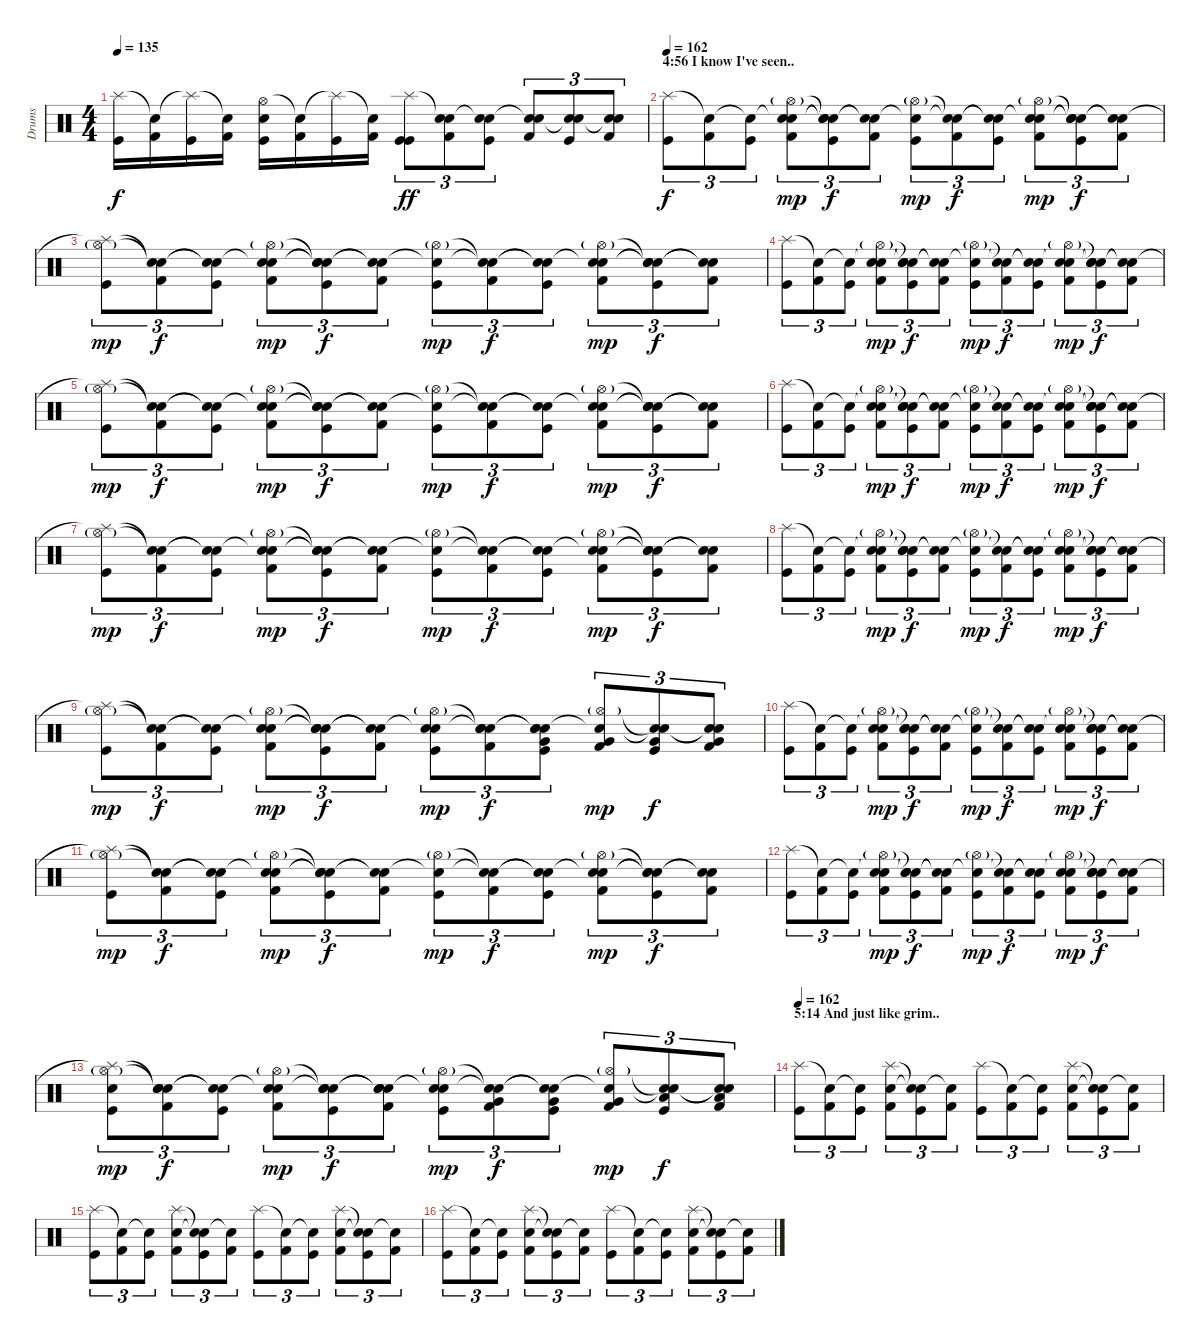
\track ("Drums" "Drums") {instrument percussion}
\staff {score}
\articulation defaults
\ts (4 4)
\tempo 135
\clef neutral
\ks c
("Splash (hit)" "Kick (hit)").16{dy f} ("Snare (hit)"{t} "Kick (hit) 2").16 ("Splash (hit)"{t} "Kick (hit)").16 ("Snare (hit)"{t} "Kick (hit) 2").16 ("Hi-Hat (open)" "Snare (hit) 2" "Kick (hit)").16 ("Snare (hit)"{t} "Kick (hit) 2").16 ("Splash (hit)"{t} "Kick (hit)").16 ("Snare (hit)"{t} "Kick (hit) 2").16 ("Splash (hit)" "Kick (hit)" "Kick (hit)").8{tu (3 2) dy ff} ("Snare (hit)"{t} "Snare (hit) 2" "Kick (hit) 2").8{tu (3 2)} ("Snare (hit)"{t} "Snare (hit) 2" "Kick (hit)").8{tu (3 2)} ("Snare (hit)"{t} "Snare (hit) 2" "Kick (hit) 2").8{tu (3 2)} ("Snare (hit)"{t} "Snare (hit) 2" "Kick (hit)").8{tu (3 2)} ("Snare (hit)"{t} "Snare (hit) 2" "Kick (hit) 2").8{tu (3 2)} |
\section ("" "4:56 I know I've seen..")
\tempo 162
("Splash (hit)" "Kick (hit)").8{tu (3 2) dy f} ("Snare (hit)"{t} "Kick (hit) 2").8{tu (3 2)} ("Snare (hit)"{t} "Kick (hit)").8{tu (3 2)} ("Snare (hit)"{t} "Hi-Hat (open)"{g} "Snare (hit) 2" "Kick (hit) 2").8{tu (3 2) dy mp} ("Snare (hit)"{t} "Snare (hit)"{t} "Snare (hit)"{t} "Kick (hit)").8{tu (3 2) dy f} ("Snare (hit)"{t} "Snare (hit)"{t} "Kick (hit) 2").8{tu (3 2)} ("Snare (hit)"{t} "Hi-Hat (open)"{g} "Kick (hit)").8{tu (3 2) dy mp} ("Snare (hit)"{t} "Snare (hit)"{t} "Kick (hit) 2").8{tu (3 2) dy f} ("Snare (hit)"{t} "Snare (hit)"{t} "Kick (hit)").8{tu (3 2)} ("Snare (hit)"{t} "Hi-Hat (open)"{g} "Snare (hit) 2" "Kick (hit) 2").8{tu (3 2) dy mp} ("Snare (hit)"{t} "Snare (hit)"{t} "Snare (hit)"{t} "Kick (hit)").8{tu (3 2) dy f} ("Snare (hit)"{t} "Snare (hit)"{t} "Kick (hit) 2").8{tu (3 2)} |
("Splash (hit)"{t} "Hi-Hat (open)"{g} "Kick (hit)").8{tu (3 2) dy mp} ("Snare (hit)"{t} "Snare (hit)"{t} "Kick (hit) 2").8{tu (3 2) dy f} ("Snare (hit)"{t} "Snare (hit)"{t} "Kick (hit)").8{tu (3 2)} ("Snare (hit)"{t} "Hi-Hat (open)"{g} "Snare (hit) 2" "Kick (hit) 2").8{tu (3 2) dy mp} ("Snare (hit)"{t} "Snare (hit)"{t} "Snare (hit)"{t} "Kick (hit)").8{tu (3 2) dy f} ("Snare (hit)"{t} "Snare (hit)"{t} "Kick (hit) 2").8{tu (3 2)} ("Snare (hit)"{t} "Hi-Hat (open)"{g} "Kick (hit)").8{tu (3 2) dy mp} ("Snare (hit)"{t} "Snare (hit)"{t} "Kick (hit) 2").8{tu (3 2) dy f} ("Snare (hit)"{t} "Snare (hit)"{t} "Kick (hit)").8{tu (3 2)} ("Snare (hit)"{t} "Hi-Hat (open)"{g} "Snare (hit) 2" "Kick (hit) 2").8{tu (3 2) dy mp} ("Snare (hit)"{t} "Snare (hit)"{t} "Snare (hit)"{t} "Kick (hit)").8{tu (3 2) dy f} ("Snare (hit)"{t} "Snare (hit)"{t} "Kick (hit) 2").8{tu (3 2)} |
("Splash (hit)" "Kick (hit)").8{tu (3 2)} ("Snare (hit)"{t} "Kick (hit) 2").8{tu (3 2)} ("Snare (hit)"{t} "Kick (hit)").8{tu (3 2)} ("Snare (hit)"{t} "Hi-Hat (open)"{g} "Snare (hit) 2" "Kick (hit) 2").8{tu (3 2) dy mp} ("Snare (hit)"{t} "Snare (hit)"{t} "Snare (hit)"{t} "Kick (hit)").8{tu (3 2) dy f} ("Snare (hit)"{t} "Snare (hit)"{t} "Kick (hit) 2").8{tu (3 2)} ("Snare (hit)"{t} "Hi-Hat (open)"{g} "Kick (hit)").8{tu (3 2) dy mp} ("Snare (hit)"{t} "Snare (hit)"{t} "Kick (hit) 2").8{tu (3 2) dy f} ("Snare (hit)"{t} "Snare (hit)"{t} "Kick (hit)").8{tu (3 2)} ("Snare (hit)"{t} "Hi-Hat (open)"{g} "Snare (hit) 2" "Kick (hit) 2").8{tu (3 2) dy mp} ("Snare (hit)"{t} "Snare (hit)"{t} "Snare (hit)"{t} "Kick (hit)").8{tu (3 2) dy f} ("Snare (hit)"{t} "Snare (hit)"{t} "Kick (hit) 2").8{tu (3 2)} |
("Splash (hit)"{t} "Hi-Hat (open)"{g} "Kick (hit)").8{tu (3 2) dy mp} ("Snare (hit)"{t} "Snare (hit)"{t} "Kick (hit) 2").8{tu (3 2) dy f} ("Snare (hit)"{t} "Snare (hit)"{t} "Kick (hit)").8{tu (3 2)} ("Snare (hit)"{t} "Hi-Hat (open)"{g} "Snare (hit) 2" "Kick (hit) 2").8{tu (3 2) dy mp} ("Snare (hit)"{t} "Snare (hit)"{t} "Snare (hit)"{t} "Kick (hit)").8{tu (3 2) dy f} ("Snare (hit)"{t} "Snare (hit)"{t} "Kick (hit) 2").8{tu (3 2)} ("Snare (hit)"{t} "Hi-Hat (open)"{g} "Kick (hit)").8{tu (3 2) dy mp} ("Snare (hit)"{t} "Snare (hit)"{t} "Kick (hit) 2").8{tu (3 2) dy f} ("Snare (hit)"{t} "Snare (hit)"{t} "Kick (hit)").8{tu (3 2)} ("Snare (hit)"{t} "Hi-Hat (open)"{g} "Snare (hit) 2" "Kick (hit) 2").8{tu (3 2) dy mp} ("Snare (hit)"{t} "Snare (hit)"{t} "Snare (hit)"{t} "Kick (hit)").8{tu (3 2) dy f} ("Snare (hit)"{t} "Snare (hit)"{t} "Kick (hit) 2").8{tu (3 2)} |
("Splash (hit)" "Kick (hit)").8{tu (3 2)} ("Snare (hit)"{t} "Kick (hit) 2").8{tu (3 2)} ("Snare (hit)"{t} "Kick (hit)").8{tu (3 2)} ("Snare (hit)"{t} "Hi-Hat (open)"{g} "Snare (hit) 2" "Kick (hit) 2").8{tu (3 2) dy mp} ("Snare (hit)"{t} "Snare (hit)"{t} "Snare (hit)"{t} "Kick (hit)").8{tu (3 2) dy f} ("Snare (hit)"{t} "Snare (hit)"{t} "Kick (hit) 2").8{tu (3 2)} ("Snare (hit)"{t} "Hi-Hat (open)"{g} "Kick (hit)").8{tu (3 2) dy mp} ("Snare (hit)"{t} "Snare (hit)"{t} "Kick (hit) 2").8{tu (3 2) dy f} ("Snare (hit)"{t} "Snare (hit)"{t} "Kick (hit)").8{tu (3 2)} ("Snare (hit)"{t} "Hi-Hat (open)"{g} "Snare (hit) 2" "Kick (hit) 2").8{tu (3 2) dy mp} ("Snare (hit)"{t} "Snare (hit)"{t} "Snare (hit)"{t} "Kick (hit)").8{tu (3 2) dy f} ("Snare (hit)"{t} "Snare (hit)"{t} "Kick (hit) 2").8{tu (3 2)} |
("Splash (hit)"{t} "Hi-Hat (open)"{g} "Kick (hit)").8{tu (3 2) dy mp} ("Snare (hit)"{t} "Snare (hit)"{t} "Kick (hit) 2").8{tu (3 2) dy f} ("Snare (hit)"{t} "Snare (hit)"{t} "Kick (hit)").8{tu (3 2)} ("Snare (hit)"{t} "Hi-Hat (open)"{g} "Snare (hit) 2" "Kick (hit) 2").8{tu (3 2) dy mp} ("Snare (hit)"{t} "Snare (hit)"{t} "Snare (hit)"{t} "Kick (hit)").8{tu (3 2) dy f} ("Snare (hit)"{t} "Snare (hit)"{t} "Kick (hit) 2").8{tu (3 2)} ("Snare (hit)"{t} "Hi-Hat (open)"{g} "Kick (hit)").8{tu (3 2) dy mp} ("Snare (hit)"{t} "Snare (hit)"{t} "Kick (hit) 2").8{tu (3 2) dy f} ("Snare (hit)"{t} "Snare (hit)"{t} "Kick (hit)").8{tu (3 2)} ("Snare (hit)"{t} "Hi-Hat (open)"{g} "Snare (hit) 2" "Kick (hit) 2").8{tu (3 2) dy mp} ("Snare (hit)"{t} "Snare (hit)"{t} "Snare (hit)"{t} "Kick (hit)").8{tu (3 2) dy f} ("Snare (hit)"{t} "Snare (hit)"{t} "Kick (hit) 2").8{tu (3 2)} |
("Splash (hit)" "Kick (hit)").8{tu (3 2)} ("Snare (hit)"{t} "Kick (hit) 2").8{tu (3 2)} ("Snare (hit)"{t} "Kick (hit)").8{tu (3 2)} ("Snare (hit)"{t} "Hi-Hat (open)"{g} "Snare (hit) 2" "Kick (hit) 2").8{tu (3 2) dy mp} ("Snare (hit)"{t} "Snare (hit)"{t} "Snare (hit)"{t} "Kick (hit)").8{tu (3 2) dy f} ("Snare (hit)"{t} "Snare (hit)"{t} "Kick (hit) 2").8{tu (3 2)} ("Snare (hit)"{t} "Hi-Hat (open)"{g} "Kick (hit)").8{tu (3 2) dy mp} ("Snare (hit)"{t} "Snare (hit)"{t} "Kick (hit) 2").8{tu (3 2) dy f} ("Snare (hit)"{t} "Snare (hit)"{t} "Kick (hit)").8{tu (3 2)} ("Snare (hit)"{t} "Hi-Hat (open)"{g} "Snare (hit) 2" "Kick (hit) 2").8{tu (3 2) dy mp} ("Snare (hit)"{t} "Snare (hit)"{t} "Snare (hit)"{t} "Kick (hit)").8{tu (3 2) dy f} ("Snare (hit)"{t} "Snare (hit)"{t} "Kick (hit) 2").8{tu (3 2)} |
("Splash (hit)"{t} "Hi-Hat (open)"{g} "Kick (hit)").8{tu (3 2) dy mp} ("Snare (hit)"{t} "Snare (hit)"{t} "Kick (hit) 2").8{tu (3 2) dy f} ("Snare (hit)"{t} "Snare (hit)"{t} "Kick (hit)").8{tu (3 2)} ("Snare (hit)"{t} "Hi-Hat (open)"{g} "Snare (hit) 2" "Kick (hit) 2").8{tu (3 2) dy mp} ("Snare (hit)"{t} "Snare (hit)"{t} "Snare (hit)"{t} "Kick (hit)").8{tu (3 2) dy f} ("Snare (hit)"{t} "Snare (hit)"{t} "Kick (hit) 2").8{tu (3 2)} ("Snare (hit)"{t} "Hi-Hat (open)"{g} "Snare (hit) 2" "Kick (hit)").8{tu (3 2) dy mp} ("Snare (hit)"{t} "Snare (hit)"{t} "Snare (hit) 2" "Kick (hit) 2").8{tu (3 2) dy f} ("Snare (hit)"{t} "Snare (hit)"{t} "Snare (hit) 2" "Very Low Tom (hit)" "Kick (hit)").8{tu (3 2)} ("Snare (hit)"{t} "Hi-Hat (open)"{g} "Very Low Tom (hit)" "Kick (hit) 2").8{tu (3 2) dy mp} ("Snare (hit)"{t} "Snare (hit)"{t} "Very Low Tom (hit)" "Kick (hit)").8{tu (3 2) dy f} ("Snare (hit)"{t} "Snare (hit)"{t} "Very Low Tom (hit)" "Kick (hit) 2").8{tu (3 2)} |
("Splash (hit)" "Kick (hit)").8{tu (3 2)} ("Snare (hit)"{t} "Kick (hit) 2").8{tu (3 2)} ("Snare (hit)"{t} "Kick (hit)").8{tu (3 2)} ("Snare (hit)"{t} "Hi-Hat (open)"{g} "Snare (hit) 2" "Kick (hit) 2").8{tu (3 2) dy mp} ("Snare (hit)"{t} "Snare (hit)"{t} "Snare (hit)"{t} "Kick (hit)").8{tu (3 2) dy f} ("Snare (hit)"{t} "Snare (hit)"{t} "Kick (hit) 2").8{tu (3 2)} ("Snare (hit)"{t} "Hi-Hat (open)"{g} "Kick (hit)").8{tu (3 2) dy mp} ("Snare (hit)"{t} "Snare (hit)"{t} "Kick (hit) 2").8{tu (3 2) dy f} ("Snare (hit)"{t} "Snare (hit)"{t} "Kick (hit)").8{tu (3 2)} ("Snare (hit)"{t} "Hi-Hat (open)"{g} "Snare (hit) 2" "Kick (hit) 2").8{tu (3 2) dy mp} ("Snare (hit)"{t} "Snare (hit)"{t} "Snare (hit)"{t} "Kick (hit)").8{tu (3 2) dy f} ("Snare (hit)"{t} "Snare (hit)"{t} "Kick (hit) 2").8{tu (3 2)} |
("Splash (hit)"{t} "Hi-Hat (open)"{g} "Kick (hit)").8{tu (3 2) dy mp} ("Snare (hit)"{t} "Snare (hit)"{t} "Kick (hit) 2").8{tu (3 2) dy f} ("Snare (hit)"{t} "Snare (hit)"{t} "Kick (hit)").8{tu (3 2)} ("Snare (hit)"{t} "Hi-Hat (open)"{g} "Snare (hit) 2" "Kick (hit) 2").8{tu (3 2) dy mp} ("Snare (hit)"{t} "Snare (hit)"{t} "Snare (hit)"{t} "Kick (hit)").8{tu (3 2) dy f} ("Snare (hit)"{t} "Snare (hit)"{t} "Kick (hit) 2").8{tu (3 2)} ("Snare (hit)"{t} "Hi-Hat (open)"{g} "Kick (hit)").8{tu (3 2) dy mp} ("Snare (hit)"{t} "Snare (hit)"{t} "Kick (hit) 2").8{tu (3 2) dy f} ("Snare (hit)"{t} "Snare (hit)"{t} "Kick (hit)").8{tu (3 2)} ("Snare (hit)"{t} "Hi-Hat (open)"{g} "Snare (hit) 2" "Kick (hit) 2").8{tu (3 2) dy mp} ("Snare (hit)"{t} "Snare (hit)"{t} "Snare (hit)"{t} "Kick (hit)").8{tu (3 2) dy f} ("Snare (hit)"{t} "Snare (hit)"{t} "Kick (hit) 2").8{tu (3 2)} |
("Splash (hit)" "Kick (hit)").8{tu (3 2)} ("Snare (hit)"{t} "Kick (hit) 2").8{tu (3 2)} ("Snare (hit)"{t} "Kick (hit)").8{tu (3 2)} ("Snare (hit)"{t} "Hi-Hat (open)"{g} "Snare (hit) 2" "Kick (hit) 2").8{tu (3 2) dy mp} ("Snare (hit)"{t} "Snare (hit)"{t} "Snare (hit)"{t} "Kick (hit)").8{tu (3 2) dy f} ("Snare (hit)"{t} "Snare (hit)"{t} "Kick (hit) 2").8{tu (3 2)} ("Snare (hit)"{t} "Hi-Hat (open)"{g} "Kick (hit)").8{tu (3 2) dy mp} ("Snare (hit)"{t} "Snare (hit)"{t} "Kick (hit) 2").8{tu (3 2) dy f} ("Snare (hit)"{t} "Snare (hit)"{t} "Kick (hit)").8{tu (3 2)} ("Snare (hit)"{t} "Hi-Hat (open)"{g} "Snare (hit) 2" "Kick (hit) 2").8{tu (3 2) dy mp} ("Snare (hit)"{t} "Snare (hit)"{t} "Snare (hit)"{t} "Kick (hit)").8{tu (3 2) dy f} ("Snare (hit)"{t} "Snare (hit)"{t} "Kick (hit) 2").8{tu (3 2)} |
("Splash (hit)"{t} "Hi-Hat (open)"{g} "Snare (hit) 2" "Kick (hit)").8{tu (3 2) dy mp} ("Snare (hit)"{t} "Snare (hit)"{t} "Snare (hit) 2" "Kick (hit) 2").8{tu (3 2) dy f} ("Snare (hit)"{t} "Snare (hit)"{t} "Kick (hit)").8{tu (3 2)} ("Snare (hit)"{t} "Hi-Hat (open)"{g} "Snare (hit) 2" "Kick (hit) 2").8{tu (3 2) dy mp} ("Snare (hit)"{t} "Snare (hit)"{t} "Snare (hit) 2" "Kick (hit)").8{tu (3 2) dy f} ("Snare (hit)"{t} "Snare (hit)"{t} "Snare (hit) 2" "Kick (hit) 2").8{tu (3 2)} ("Snare (hit)"{t} "Hi-Hat (open)"{g} "Snare (hit) 2" "Kick (hit)").8{tu (3 2) dy mp} ("Snare (hit)"{t} "Snare (hit)"{t} "Very Low Tom (hit)" "Kick (hit) 2").8{tu (3 2) dy f} ("Snare (hit)"{t} "Snare (hit)"{t} "Very Low Tom (hit)" "Kick (hit)").8{tu (3 2)} ("Snare (hit)"{t} "Hi-Hat (open)"{g} "Very Low Tom (hit)" "Kick (hit) 2").8{tu (3 2) dy mp} ("Snare (hit)"{t} "Snare (hit)"{t} "Low Floor Tom (hit)" "Kick (hit)").8{tu (3 2) dy f} ("Snare (hit)"{t} "Snare (hit)"{t} "Low Floor Tom (hit)" "Kick (hit) 2").8{tu (3 2)} |
\section ("" "5:14 And just like grim..")
\tempo 162
("Splash (hit)" "Kick (hit)").8{tu (3 2)} ("Snare (hit)"{t} "Kick (hit) 2").8{tu (3 2)} ("Snare (hit)"{t} "Kick (hit)").8{tu (3 2)} ("Splash (hit)" "Snare (hit) 2" "Kick (hit) 2").8{tu (3 2)} ("Snare (hit)"{t} "Snare (hit)"{t} "Kick (hit)").8{tu (3 2)} ("Snare (hit)"{t} "Kick (hit) 2").8{tu (3 2)} ("Splash (hit)" "Kick (hit)").8{tu (3 2)} ("Snare (hit)"{t} "Kick (hit) 2").8{tu (3 2)} ("Snare (hit)"{t} "Kick (hit)").8{tu (3 2)} ("Splash (hit)" "Snare (hit) 2" "Kick (hit) 2").8{tu (3 2)} ("Snare (hit)"{t} "Snare (hit)"{t} "Kick (hit)").8{tu (3 2)} ("Snare (hit)"{t} "Kick (hit) 2").8{tu (3 2)} |
("Splash (hit)" "Kick (hit)").8{tu (3 2)} ("Snare (hit)"{t} "Kick (hit) 2").8{tu (3 2)} ("Snare (hit)"{t} "Kick (hit)").8{tu (3 2)} ("Splash (hit)" "Snare (hit) 2" "Kick (hit) 2").8{tu (3 2)} ("Snare (hit)"{t} "Snare (hit)"{t} "Kick (hit)").8{tu (3 2)} ("Snare (hit)"{t} "Kick (hit) 2").8{tu (3 2)} ("Splash (hit)" "Kick (hit)").8{tu (3 2)} ("Snare (hit)"{t} "Kick (hit) 2").8{tu (3 2)} ("Snare (hit)"{t} "Kick (hit)").8{tu (3 2)} ("Splash (hit)" "Snare (hit) 2" "Kick (hit) 2").8{tu (3 2)} ("Snare (hit)"{t} "Snare (hit)"{t} "Kick (hit)").8{tu (3 2)} ("Snare (hit)"{t} "Kick (hit) 2").8{tu (3 2)} |
("Splash (hit)" "Kick (hit)").8{tu (3 2)} ("Snare (hit)"{t} "Kick (hit) 2").8{tu (3 2)} ("Snare (hit)"{t} "Kick (hit)").8{tu (3 2)} ("Splash (hit)" "Snare (hit) 2" "Kick (hit) 2").8{tu (3 2)} ("Snare (hit)"{t} "Snare (hit)"{t} "Kick (hit)").8{tu (3 2)} ("Snare (hit)"{t} "Kick (hit) 2").8{tu (3 2)} ("Splash (hit)" "Kick (hit)").8{tu (3 2)} ("Snare (hit)"{t} "Kick (hit) 2").8{tu (3 2)} ("Snare (hit)"{t} "Kick (hit)").8{tu (3 2)} ("Splash (hit)" "Snare (hit) 2" "Kick (hit) 2").8{tu (3 2)} ("Snare (hit)"{t} "Snare (hit)"{t} "Kick (hit)").8{tu (3 2)} ("Snare (hit)"{t} "Kick (hit) 2").8{tu (3 2)}
